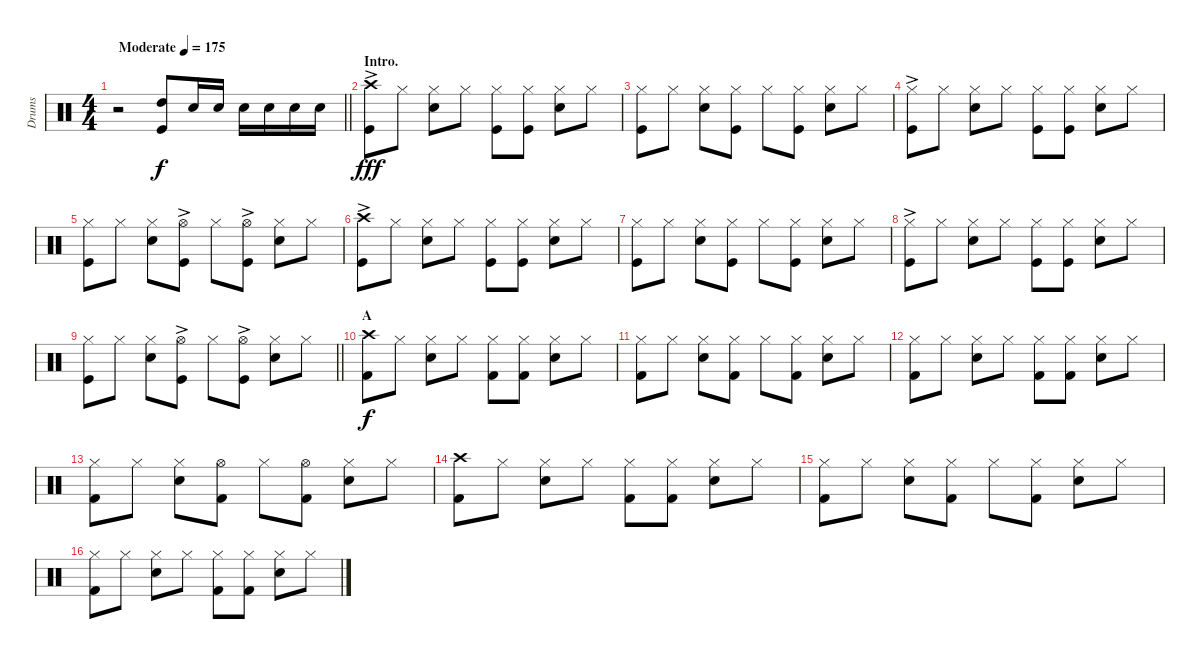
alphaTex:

\track ("Drums" "Drums") {instrument percussion}
\staff {score}
\articulation defaults
\ts (4 4)
\tempo (175 "Moderate")
\clef neutral
\barLineRight lightlight
\ks c
r.2{dy f} ("High Tom (hit)" "Kick (hit)").8 "Snare (hit) 2".16 "Snare (hit) 2".16 "Snare (hit) 2".16 "Snare (hit) 2".16 "Snare (hit) 2".16 "Snare (hit) 2".16 |
\section ("" "Intro.")
("Crash high (hit)"{ac} "Kick (hit)").8{dy fff} "Hi-Hat (closed)".8 ("Hi-Hat (closed)" "Snare (hit) 2").8 "Hi-Hat (closed)".8 ("Hi-Hat (closed)" "Kick (hit)").8 ("Hi-Hat (closed)" "Kick (hit)").8 ("Hi-Hat (closed)" "Snare (hit) 2").8 "Hi-Hat (closed)".8 |
("Hi-Hat (closed)" "Kick (hit)").8 "Hi-Hat (closed)".8 ("Hi-Hat (closed)" "Snare (hit) 2").8 ("Hi-Hat (closed)" "Kick (hit)").8 "Hi-Hat (closed)".8 ("Hi-Hat (closed)" "Kick (hit)").8 ("Hi-Hat (closed)" "Snare (hit) 2").8 "Hi-Hat (closed)".8 |
("Hi-Hat (closed)"{ac} "Kick (hit)").8 "Hi-Hat (closed)".8 ("Hi-Hat (closed)" "Snare (hit) 2").8 "Hi-Hat (closed)".8 ("Hi-Hat (closed)" "Kick (hit)").8 ("Hi-Hat (closed)" "Kick (hit)").8 ("Hi-Hat (closed)" "Snare (hit) 2").8 "Hi-Hat (closed)".8 |
("Hi-Hat (closed)" "Kick (hit)").8 "Hi-Hat (closed)".8 ("Hi-Hat (closed)" "Snare (hit) 2").8 ("Hi-Hat (open)"{ac} "Kick (hit)").8 "Hi-Hat (closed)".8 ("Hi-Hat (open)"{ac} "Kick (hit)").8 ("Hi-Hat (closed)" "Snare (hit) 2").8 "Hi-Hat (closed)".8 |
("Crash high (hit)"{ac} "Kick (hit)").8 "Hi-Hat (closed)".8 ("Hi-Hat (closed)" "Snare (hit) 2").8 "Hi-Hat (closed)".8 ("Hi-Hat (closed)" "Kick (hit)").8 ("Hi-Hat (closed)" "Kick (hit)").8 ("Hi-Hat (closed)" "Snare (hit) 2").8 "Hi-Hat (closed)".8 |
("Hi-Hat (closed)" "Kick (hit)").8 "Hi-Hat (closed)".8 ("Hi-Hat (closed)" "Snare (hit) 2").8 ("Hi-Hat (closed)" "Kick (hit)").8 "Hi-Hat (closed)".8 ("Hi-Hat (closed)" "Kick (hit)").8 ("Hi-Hat (closed)" "Snare (hit) 2").8 "Hi-Hat (closed)".8 |
("Hi-Hat (closed)"{ac} "Kick (hit)").8 "Hi-Hat (closed)".8 ("Hi-Hat (closed)" "Snare (hit) 2").8 "Hi-Hat (closed)".8 ("Hi-Hat (closed)" "Kick (hit)").8 ("Hi-Hat (closed)" "Kick (hit)").8 ("Hi-Hat (closed)" "Snare (hit) 2").8 "Hi-Hat (closed)".8 |
\barLineRight lightlight
("Hi-Hat (closed)" "Kick (hit)").8 "Hi-Hat (closed)".8 ("Hi-Hat (closed)" "Snare (hit) 2").8 ("Hi-Hat (open)"{ac} "Kick (hit)").8 "Hi-Hat (closed)".8 ("Hi-Hat (open)"{ac} "Kick (hit)").8 ("Hi-Hat (closed)" "Snare (hit) 2").8 "Hi-Hat (closed)".8 |
\section ("" "A")
("Crash high (hit)" "Kick (hit) 2").8{dy f} "Hi-Hat (closed)".8 ("Hi-Hat (closed)" "Snare (hit) 2").8 "Hi-Hat (closed)".8 ("Hi-Hat (closed)" "Kick (hit) 2").8 ("Hi-Hat (closed)" "Kick (hit) 2").8 ("Hi-Hat (closed)" "Snare (hit) 2").8 "Hi-Hat (closed)".8 |
("Hi-Hat (closed)" "Kick (hit) 2").8 "Hi-Hat (closed)".8 ("Hi-Hat (closed)" "Snare (hit) 2").8 ("Hi-Hat (closed)" "Kick (hit) 2").8 "Hi-Hat (closed)".8 ("Hi-Hat (closed)" "Kick (hit) 2").8 ("Hi-Hat (closed)" "Snare (hit) 2").8 "Hi-Hat (closed)".8 |
("Hi-Hat (closed)" "Kick (hit) 2").8 "Hi-Hat (closed)".8 ("Hi-Hat (closed)" "Snare (hit) 2").8 "Hi-Hat (closed)".8 ("Hi-Hat (closed)" "Kick (hit) 2").8 ("Hi-Hat (closed)" "Kick (hit) 2").8 ("Hi-Hat (closed)" "Snare (hit) 2").8 "Hi-Hat (closed)".8 |
("Hi-Hat (closed)" "Kick (hit) 2").8 "Hi-Hat (closed)".8 ("Hi-Hat (closed)" "Snare (hit) 2").8 ("Hi-Hat (open)" "Kick (hit) 2").8 "Hi-Hat (closed)".8 ("Hi-Hat (open)" "Kick (hit) 2").8 ("Hi-Hat (closed)" "Snare (hit) 2").8 "Hi-Hat (closed)".8 |
("Crash high (hit)" "Kick (hit) 2").8 "Hi-Hat (closed)".8 ("Hi-Hat (closed)" "Snare (hit) 2").8 "Hi-Hat (closed)".8 ("Hi-Hat (closed)" "Kick (hit) 2").8 ("Hi-Hat (closed)" "Kick (hit) 2").8 ("Hi-Hat (closed)" "Snare (hit) 2").8 "Hi-Hat (closed)".8 |
("Hi-Hat (closed)" "Kick (hit) 2").8 "Hi-Hat (closed)".8 ("Hi-Hat (closed)" "Snare (hit) 2").8 ("Hi-Hat (closed)" "Kick (hit) 2").8 "Hi-Hat (closed)".8 ("Hi-Hat (closed)" "Kick (hit) 2").8 ("Hi-Hat (closed)" "Snare (hit) 2").8 "Hi-Hat (closed)".8 |
("Hi-Hat (closed)" "Kick (hit) 2").8 "Hi-Hat (closed)".8 ("Hi-Hat (closed)" "Snare (hit) 2").8 "Hi-Hat (closed)".8 ("Hi-Hat (closed)" "Kick (hit) 2").8 ("Hi-Hat (closed)" "Kick (hit) 2").8 ("Hi-Hat (closed)" "Snare (hit) 2").8 "Hi-Hat (closed)".8
